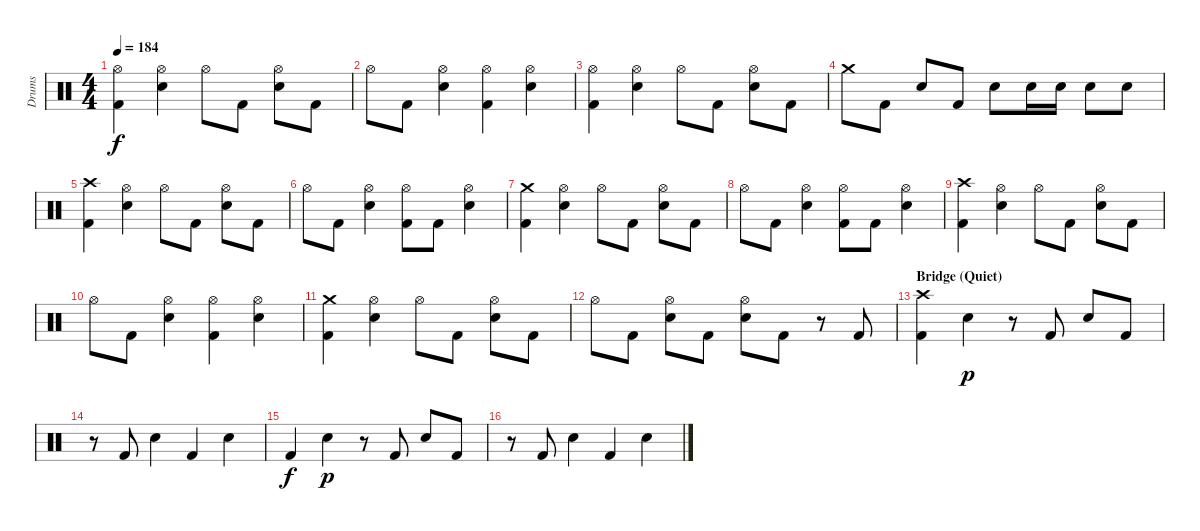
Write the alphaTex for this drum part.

\track ("Drums" "Drums") {instrument percussion}
\staff {score}
\articulation defaults
\ts (4 4)
\tempo 184
\clef neutral
\ks c
("Hi-Hat (open)" "Kick (hit) 2").4{dy f} ("Hi-Hat (open)" "Snare (hit) 2").4 "Hi-Hat (open)".8 "Kick (hit) 2".8 ("Hi-Hat (open)" "Snare (hit) 2").8 "Kick (hit) 2".8 |
"Hi-Hat (open)".8 "Kick (hit) 2".8 ("Hi-Hat (open)" "Snare (hit) 2").4 ("Hi-Hat (open)" "Kick (hit) 2").4 ("Hi-Hat (open)" "Snare (hit) 2").4 |
("Hi-Hat (open)" "Kick (hit) 2").4 ("Hi-Hat (open)" "Snare (hit) 2").4 "Hi-Hat (open)".8 "Kick (hit) 2".8 ("Hi-Hat (open)" "Snare (hit) 2").8 "Kick (hit) 2".8 |
"Crash medium (hit)".8 "Kick (hit) 2".8 "Snare (hit) 2".8 "Kick (hit) 2".8 "Snare (hit) 2".8 "Snare (hit) 2".16 "Snare (hit) 2".16 "Snare (hit) 2".8 "Snare (hit) 2".8 |
("Crash high (hit)" "Kick (hit) 2").4 ("Hi-Hat (open)" "Snare (hit) 2").4 "Hi-Hat (open)".8 "Kick (hit) 2".8 ("Hi-Hat (open)" "Snare (hit) 2").8 "Kick (hit) 2".8 |
"Hi-Hat (open)".8 "Kick (hit) 2".8 ("Hi-Hat (open)" "Snare (hit) 2").4 ("Hi-Hat (open)" "Kick (hit) 2").8 "Kick (hit) 2".8 ("Hi-Hat (open)" "Snare (hit) 2").4 |
("Crash medium (hit)" "Kick (hit) 2").4 ("Hi-Hat (open)" "Snare (hit) 2").4 "Hi-Hat (open)".8 "Kick (hit) 2".8 ("Hi-Hat (open)" "Snare (hit) 2").8 "Kick (hit) 2".8 |
"Hi-Hat (open)".8 "Kick (hit) 2".8 ("Hi-Hat (open)" "Snare (hit) 2").4 ("Hi-Hat (open)" "Kick (hit) 2").8 "Kick (hit) 2".8 ("Hi-Hat (open)" "Snare (hit) 2").4 |
("Crash high (hit)" "Kick (hit) 2").4 ("Hi-Hat (open)" "Snare (hit) 2").4 "Hi-Hat (open)".8 "Kick (hit) 2".8 ("Hi-Hat (open)" "Snare (hit) 2").8 "Kick (hit) 2".8 |
"Hi-Hat (open)".8 "Kick (hit) 2".8 ("Hi-Hat (open)" "Snare (hit) 2").4 ("Hi-Hat (open)" "Kick (hit) 2").4 ("Hi-Hat (open)" "Snare (hit) 2").4 |
("Crash medium (hit)" "Kick (hit) 2").4 ("Hi-Hat (open)" "Snare (hit) 2").4 "Hi-Hat (open)".8 "Kick (hit) 2".8 ("Hi-Hat (open)" "Snare (hit) 2").8 "Kick (hit) 2".8 |
"Hi-Hat (open)".8 "Kick (hit) 2".8 ("Hi-Hat (open)" "Snare (hit) 2").8 "Kick (hit) 2".8 ("Hi-Hat (open)" "Snare (hit) 2").8 "Kick (hit) 2".8 r.8 "Kick (hit) 2".8 |
\section ("" "Bridge (Quiet)")
("Crash high (hit)" "Kick (hit) 2").4 "Snare (hit) 2".4{dy p} r.8 "Kick (hit) 2".8 "Snare (hit) 2".8 "Kick (hit) 2".8 |
r.8 "Kick (hit) 2".8 "Snare (hit) 2".4 "Kick (hit) 2".4 "Snare (hit) 2".4 |
"Kick (hit) 2".4{dy f} "Snare (hit) 2".4{dy p} r.8 "Kick (hit) 2".8 "Snare (hit) 2".8 "Kick (hit) 2".8 |
r.8 "Kick (hit) 2".8 "Snare (hit) 2".4 "Kick (hit) 2".4 "Snare (hit) 2".4
